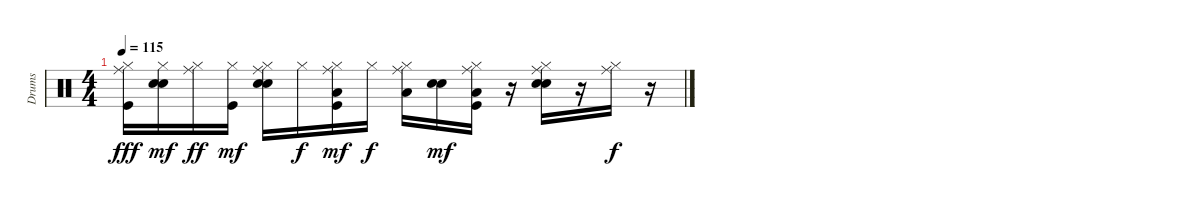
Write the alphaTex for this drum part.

\track ("Drums" "Drums") {instrument percussion}
\staff {score}
\articulation defaults
\ts (4 4)
\tempo 115
\clef neutral
\ks c
("Hi-Hat (closed)" "Ride (middle)" "Kick (hit)").16{dy fff} ("Hi-Hat (closed)" "Electric Snare (hit)" "Snare (hit) 2").16{dy mf} ("Hi-Hat (closed)" "Ride (middle)").16{dy ff} ("Hi-Hat (closed)" "Kick (hit)").16{dy mf} ("Hi-Hat (closed)" "Ride (middle)" "Electric Snare (hit)" "Snare (hit) 2").16 "Hi-Hat (closed)".16{dy f} ("Hi-Hat (closed)" "Ride (middle)" "Low Tom (hit)" "Kick (hit)").16{dy mf} "Hi-Hat (closed)".16{dy f} ("Hi-Hat (closed)" "Ride (middle)" "Low Tom (hit)").16 ("Electric Snare (hit)" "Snare (hit) 2").16{dy mf} ("Hi-Hat (closed)" "Ride (middle)" "Low Tom (hit)" "Kick (hit)").16 r.16 ("Hi-Hat (closed)" "Ride (middle)" "Electric Snare (hit)" "Snare (hit) 2").16 r.16 ("Hi-Hat (closed)" "Ride (middle)").16{dy f} r.16
